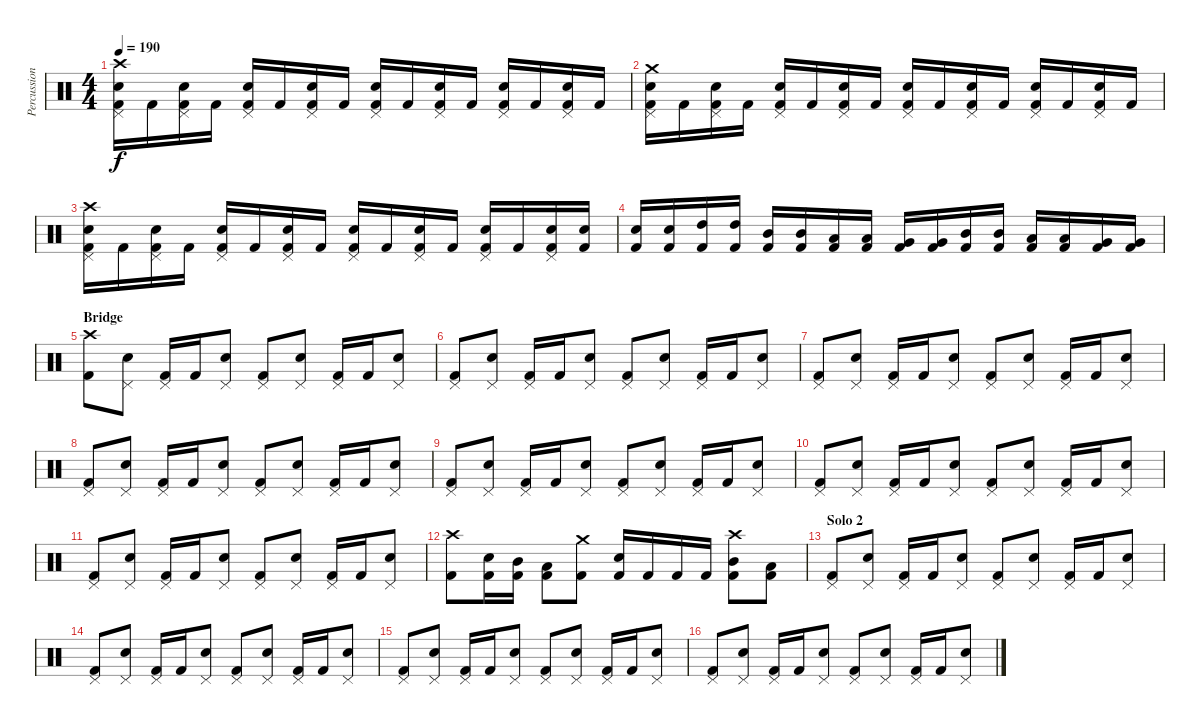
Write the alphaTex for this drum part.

\track ("Percussion" "Percussion") {instrument percussion}
\staff {score}
\articulation defaults
\ts (4 4)
\tempo 190
\clef neutral
\ks c
("Crash high (hit)" "Pedal Hi-Hat (hit)" "Snare (hit) 2" "Kick (hit) 2").16{dy f} "Kick (hit) 2".16 ("Pedal Hi-Hat (hit)" "Snare (hit) 2" "Kick (hit) 2").16 "Kick (hit) 2".16 ("Pedal Hi-Hat (hit)" "Snare (hit) 2" "Kick (hit) 2").16 "Kick (hit) 2".16 ("Pedal Hi-Hat (hit)" "Snare (hit) 2" "Kick (hit) 2").16 "Kick (hit) 2".16 ("Pedal Hi-Hat (hit)" "Snare (hit) 2" "Kick (hit) 2").16 "Kick (hit) 2".16 ("Pedal Hi-Hat (hit)" "Snare (hit) 2" "Kick (hit) 2").16 "Kick (hit) 2".16 ("Pedal Hi-Hat (hit)" "Snare (hit) 2" "Kick (hit) 2").16 "Kick (hit) 2".16 ("Pedal Hi-Hat (hit)" "Snare (hit) 2" "Kick (hit) 2").16 "Kick (hit) 2".16 |
("Crash medium (hit)" "Pedal Hi-Hat (hit)" "Snare (hit) 2" "Kick (hit) 2").16 "Kick (hit) 2".16 ("Pedal Hi-Hat (hit)" "Snare (hit) 2" "Kick (hit) 2").16 "Kick (hit) 2".16 ("Pedal Hi-Hat (hit)" "Snare (hit) 2" "Kick (hit) 2").16 "Kick (hit) 2".16 ("Pedal Hi-Hat (hit)" "Snare (hit) 2" "Kick (hit) 2").16 "Kick (hit) 2".16 ("Pedal Hi-Hat (hit)" "Snare (hit) 2" "Kick (hit) 2").16 "Kick (hit) 2".16 ("Pedal Hi-Hat (hit)" "Snare (hit) 2" "Kick (hit) 2").16 "Kick (hit) 2".16 ("Pedal Hi-Hat (hit)" "Snare (hit) 2" "Kick (hit) 2").16 "Kick (hit) 2".16 ("Pedal Hi-Hat (hit)" "Snare (hit) 2" "Kick (hit) 2").16 "Kick (hit) 2".16 |
("Crash high (hit)" "Pedal Hi-Hat (hit)" "Snare (hit) 2" "Kick (hit) 2").16 "Kick (hit) 2".16 ("Pedal Hi-Hat (hit)" "Snare (hit) 2" "Kick (hit) 2").16 "Kick (hit) 2".16 ("Pedal Hi-Hat (hit)" "Snare (hit) 2" "Kick (hit) 2").16 "Kick (hit) 2".16 ("Pedal Hi-Hat (hit)" "Snare (hit) 2" "Kick (hit) 2").16 "Kick (hit) 2".16 ("Pedal Hi-Hat (hit)" "Snare (hit) 2" "Kick (hit) 2").16 "Kick (hit) 2".16 ("Pedal Hi-Hat (hit)" "Snare (hit) 2" "Kick (hit) 2").16 "Kick (hit) 2".16 ("Pedal Hi-Hat (hit)" "Snare (hit) 2" "Kick (hit) 2").16 "Kick (hit) 2".16 ("Pedal Hi-Hat (hit)" "Snare (hit) 2" "Kick (hit) 2").16 ("Snare (hit) 2" "Kick (hit) 2").16 |
("Snare (hit) 2" "Kick (hit) 2").16 ("Snare (hit) 2" "Kick (hit) 2").16 ("High Tom (hit)" "Kick (hit) 2").16 ("High Tom (hit)" "Kick (hit) 2").16 ("Mid Tom (hit)" "Kick (hit) 2").16 ("Mid Tom (hit)" "Kick (hit) 2").16 ("Low Tom (hit)" "Kick (hit) 2").16 ("Low Tom (hit)" "Kick (hit) 2").16 ("Very Low Tom (hit)" "Kick (hit) 2").16 ("Very Low Tom (hit)" "Kick (hit) 2").16 ("Mid Tom (hit)" "Kick (hit) 2").16 ("Mid Tom (hit)" "Kick (hit) 2").16 ("Low Tom (hit)" "Kick (hit) 2").16 ("Low Tom (hit)" "Kick (hit) 2").16 ("Very Low Tom (hit)" "Kick (hit) 2").16 ("Very Low Tom (hit)" "Kick (hit) 2").16 |
\section ("" "Bridge")
("Crash high (hit)" "Kick (hit) 2").8 ("Pedal Hi-Hat (hit)" "Snare (hit) 2").8 ("Pedal Hi-Hat (hit)" "Kick (hit) 2").16 "Kick (hit) 2".16 ("Pedal Hi-Hat (hit)" "Snare (hit) 2").8 ("Pedal Hi-Hat (hit)" "Kick (hit) 2").8 ("Pedal Hi-Hat (hit)" "Snare (hit) 2").8 ("Pedal Hi-Hat (hit)" "Kick (hit) 2").16 "Kick (hit) 2".16 ("Pedal Hi-Hat (hit)" "Snare (hit) 2").8 |
("Pedal Hi-Hat (hit)" "Kick (hit) 2").8 ("Pedal Hi-Hat (hit)" "Snare (hit) 2").8 ("Pedal Hi-Hat (hit)" "Kick (hit) 2").16 "Kick (hit) 2".16 ("Pedal Hi-Hat (hit)" "Snare (hit) 2").8 ("Pedal Hi-Hat (hit)" "Kick (hit) 2").8 ("Pedal Hi-Hat (hit)" "Snare (hit) 2").8 ("Pedal Hi-Hat (hit)" "Kick (hit) 2").16 "Kick (hit) 2".16 ("Pedal Hi-Hat (hit)" "Snare (hit) 2").8 |
("Pedal Hi-Hat (hit)" "Kick (hit) 2").8 ("Pedal Hi-Hat (hit)" "Snare (hit) 2").8 ("Pedal Hi-Hat (hit)" "Kick (hit) 2").16 "Kick (hit) 2".16 ("Pedal Hi-Hat (hit)" "Snare (hit) 2").8 ("Pedal Hi-Hat (hit)" "Kick (hit) 2").8 ("Pedal Hi-Hat (hit)" "Snare (hit) 2").8 ("Pedal Hi-Hat (hit)" "Kick (hit) 2").16 "Kick (hit) 2".16 ("Pedal Hi-Hat (hit)" "Snare (hit) 2").8 |
("Pedal Hi-Hat (hit)" "Kick (hit) 2").8 ("Pedal Hi-Hat (hit)" "Snare (hit) 2").8 ("Pedal Hi-Hat (hit)" "Kick (hit) 2").16 "Kick (hit) 2".16 ("Pedal Hi-Hat (hit)" "Snare (hit) 2").8 ("Pedal Hi-Hat (hit)" "Kick (hit) 2").8 ("Pedal Hi-Hat (hit)" "Snare (hit) 2").8 ("Pedal Hi-Hat (hit)" "Kick (hit) 2").16 "Kick (hit) 2".16 ("Pedal Hi-Hat (hit)" "Snare (hit) 2").8 |
("Pedal Hi-Hat (hit)" "Kick (hit) 2").8 ("Pedal Hi-Hat (hit)" "Snare (hit) 2").8 ("Pedal Hi-Hat (hit)" "Kick (hit) 2").16 "Kick (hit) 2".16 ("Pedal Hi-Hat (hit)" "Snare (hit) 2").8 ("Pedal Hi-Hat (hit)" "Kick (hit) 2").8 ("Pedal Hi-Hat (hit)" "Snare (hit) 2").8 ("Pedal Hi-Hat (hit)" "Kick (hit) 2").16 "Kick (hit) 2".16 ("Pedal Hi-Hat (hit)" "Snare (hit) 2").8 |
("Pedal Hi-Hat (hit)" "Kick (hit) 2").8 ("Pedal Hi-Hat (hit)" "Snare (hit) 2").8 ("Pedal Hi-Hat (hit)" "Kick (hit) 2").16 "Kick (hit) 2".16 ("Pedal Hi-Hat (hit)" "Snare (hit) 2").8 ("Pedal Hi-Hat (hit)" "Kick (hit) 2").8 ("Pedal Hi-Hat (hit)" "Snare (hit) 2").8 ("Pedal Hi-Hat (hit)" "Kick (hit) 2").16 "Kick (hit) 2".16 ("Pedal Hi-Hat (hit)" "Snare (hit) 2").8 |
("Pedal Hi-Hat (hit)" "Kick (hit) 2").8 ("Pedal Hi-Hat (hit)" "Snare (hit) 2").8 ("Pedal Hi-Hat (hit)" "Kick (hit) 2").16 "Kick (hit) 2".16 ("Pedal Hi-Hat (hit)" "Snare (hit) 2").8 ("Pedal Hi-Hat (hit)" "Kick (hit) 2").8 ("Pedal Hi-Hat (hit)" "Snare (hit) 2").8 ("Pedal Hi-Hat (hit)" "Kick (hit) 2").16 "Kick (hit) 2".16 ("Pedal Hi-Hat (hit)" "Snare (hit) 2").8 |
("Crash high (hit)" "Kick (hit) 2").8 ("Snare (hit) 2" "Kick (hit) 2").16 ("Mid Tom (hit)" "Kick (hit) 2").16 ("Low Tom (hit)" "Kick (hit) 2").8 ("Crash medium (hit)" "Kick (hit) 2").8 ("Snare (hit) 2" "Kick (hit) 2").16 "Kick (hit) 2".16 "Kick (hit) 2".16 "Kick (hit) 2".16 ("Crash high (hit)" "Mid Tom (hit)" "Kick (hit) 2").8 ("Low Tom (hit)" "Kick (hit) 2").8 |
\section ("" "Solo 2")
("Pedal Hi-Hat (hit)" "Kick (hit) 2").8 ("Pedal Hi-Hat (hit)" "Snare (hit) 2").8 ("Pedal Hi-Hat (hit)" "Kick (hit) 2").16 "Kick (hit) 2".16 ("Pedal Hi-Hat (hit)" "Snare (hit) 2").8 ("Pedal Hi-Hat (hit)" "Kick (hit) 2").8 ("Pedal Hi-Hat (hit)" "Snare (hit) 2").8 ("Pedal Hi-Hat (hit)" "Kick (hit) 2").16 "Kick (hit) 2".16 ("Pedal Hi-Hat (hit)" "Snare (hit) 2").8 |
("Pedal Hi-Hat (hit)" "Kick (hit) 2").8 ("Pedal Hi-Hat (hit)" "Snare (hit) 2").8 ("Pedal Hi-Hat (hit)" "Kick (hit) 2").16 "Kick (hit) 2".16 ("Pedal Hi-Hat (hit)" "Snare (hit) 2").8 ("Pedal Hi-Hat (hit)" "Kick (hit) 2").8 ("Pedal Hi-Hat (hit)" "Snare (hit) 2").8 ("Pedal Hi-Hat (hit)" "Kick (hit) 2").16 "Kick (hit) 2".16 ("Pedal Hi-Hat (hit)" "Snare (hit) 2").8 |
("Pedal Hi-Hat (hit)" "Kick (hit) 2").8 ("Pedal Hi-Hat (hit)" "Snare (hit) 2").8 ("Pedal Hi-Hat (hit)" "Kick (hit) 2").16 "Kick (hit) 2".16 ("Pedal Hi-Hat (hit)" "Snare (hit) 2").8 ("Pedal Hi-Hat (hit)" "Kick (hit) 2").8 ("Pedal Hi-Hat (hit)" "Snare (hit) 2").8 ("Pedal Hi-Hat (hit)" "Kick (hit) 2").16 "Kick (hit) 2".16 ("Pedal Hi-Hat (hit)" "Snare (hit) 2").8 |
("Pedal Hi-Hat (hit)" "Kick (hit) 2").8 ("Pedal Hi-Hat (hit)" "Snare (hit) 2").8 ("Pedal Hi-Hat (hit)" "Kick (hit) 2").16 "Kick (hit) 2".16 ("Pedal Hi-Hat (hit)" "Snare (hit) 2").8 ("Pedal Hi-Hat (hit)" "Kick (hit) 2").8 ("Pedal Hi-Hat (hit)" "Snare (hit) 2").8 ("Pedal Hi-Hat (hit)" "Kick (hit) 2").16 "Kick (hit) 2".16 ("Pedal Hi-Hat (hit)" "Snare (hit) 2").8
